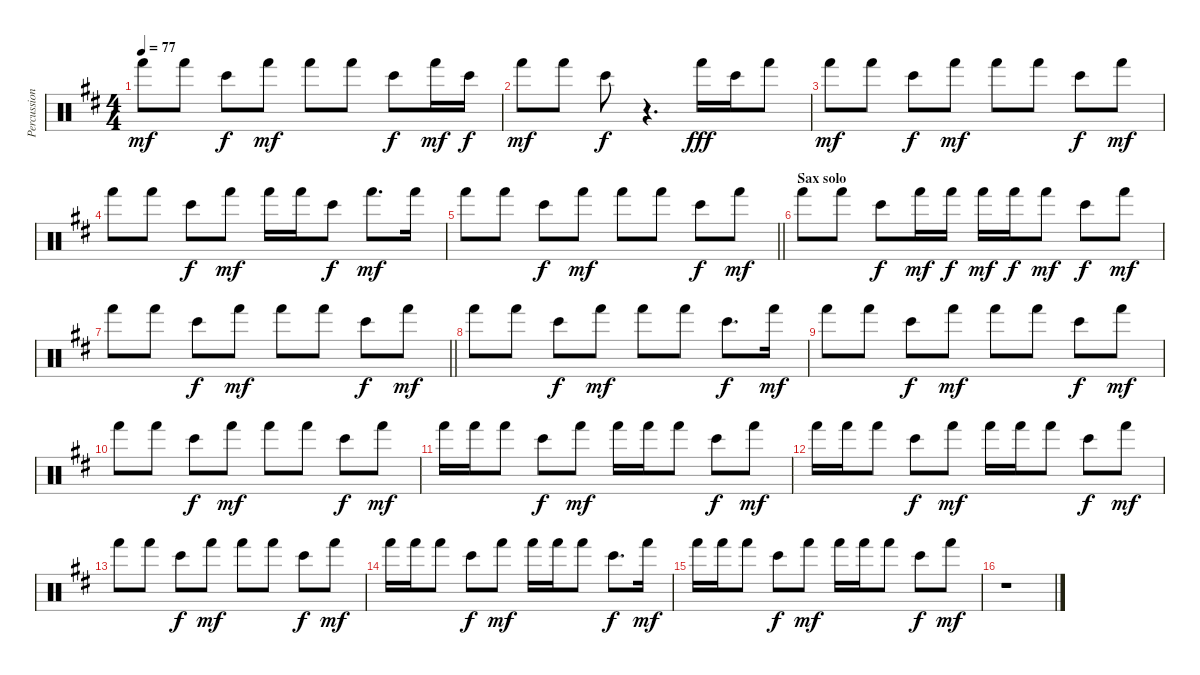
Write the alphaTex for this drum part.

\track ("Percussion" "Percussion") {instrument percussion}
\staff {score}
\articulation defaults
\ts (4 4)
\tempo 77
\clef neutral
\ks d "Hand (hit)".8{dy mf} "Hand (hit)".8 "Bongo High (hit)".8{dy f} "Hand (hit)".8{dy mf} "Hand (hit)".8 "Hand (hit)".8 "Bongo High (hit)".8{dy f} "Hand (hit)".16{dy mf} "Bongo High (hit)".16{dy f}
|
"Hand (hit)".8{dy mf} "Hand (hit)".8 "Bongo High (hit)".8{dy f} r.4{d} "Hand (hit)".16{dy fff} "Bongo High (hit)".16 "Hand (hit)".8 |
"Hand (hit)".8{dy mf} "Hand (hit)".8 "Bongo High (hit)".8{dy f} "Hand (hit)".8{dy mf} "Hand (hit)".8 "Hand (hit)".8 "Bongo High (hit)".8{dy f} "Hand (hit)".8{dy mf} |
"Hand (hit)".8 "Hand (hit)".8 "Bongo High (hit)".8{dy f} "Hand (hit)".8{dy mf} "Hand (hit)".16 "Hand (hit)".16 "Bongo High (hit)".8{dy f} "Hand (hit)".8{d dy mf} "Hand (hit)".16 |
\barLineRight lightlight "Hand (hit)".8 "Hand (hit)".8 "Bongo High (hit)".8{dy f} "Hand (hit)".8{dy mf} "Hand (hit)".8 "Hand (hit)".8 "Bongo High (hit)".8{dy f} "Hand (hit)".8{dy mf}
|
\section ("" "Sax solo")
"Hand (hit)".8 "Hand (hit)".8 "Bongo High (hit)".8{dy f} "Hand (hit)".16{dy mf} "Hand (hit)".16{dy f} "Hand (hit)".16{dy mf} "Hand (hit)".16{dy f} "Hand (hit)".8{dy mf} "Bongo High (hit)".8{dy f} "Hand (hit)".8{dy mf} |
\barLineRight lightlight "Hand (hit)".8 "Hand (hit)".8 "Bongo High (hit)".8{dy f} "Hand (hit)".8{dy mf} "Hand (hit)".8 "Hand (hit)".8 "Bongo High (hit)".8{dy f} "Hand (hit)".8{dy mf}
|
"Hand (hit)".8 "Hand (hit)".8 "Bongo High (hit)".8{dy f} "Hand (hit)".8{dy mf} "Hand (hit)".8 "Hand (hit)".8 "Bongo High (hit)".8{d dy f} "Hand (hit)".16{dy mf} |
"Hand (hit)".8 "Hand (hit)".8 "Bongo High (hit)".8{dy f} "Hand (hit)".8{dy mf} "Hand (hit)".8 "Hand (hit)".8 "Bongo High (hit)".8{dy f} "Hand (hit)".8{dy mf} |
"Hand (hit)".8 "Hand (hit)".8 "Bongo High (hit)".8{dy f} "Hand (hit)".8{dy mf} "Hand (hit)".8 "Hand (hit)".8 "Bongo High (hit)".8{dy f} "Hand (hit)".8{dy mf} |
"Hand (hit)".16 "Hand (hit)".16 "Hand (hit)".8 "Bongo High (hit)".8{dy f} "Hand (hit)".8{dy mf} "Hand (hit)".16 "Hand (hit)".16 "Hand (hit)".8 "Bongo High (hit)".8{dy f} "Hand (hit)".8{dy mf} |
"Hand (hit)".16 "Hand (hit)".16 "Hand (hit)".8 "Bongo High (hit)".8{dy f} "Hand (hit)".8{dy mf} "Hand (hit)".16 "Hand (hit)".16 "Hand (hit)".8 "Bongo High (hit)".8{dy f} "Hand (hit)".8{dy mf} |
"Hand (hit)".8 "Hand (hit)".8 "Bongo High (hit)".8{dy f} "Hand (hit)".8{dy mf} "Hand (hit)".8 "Hand (hit)".8 "Bongo High (hit)".8{dy f} "Hand (hit)".8{dy mf} |
"Hand (hit)".16 "Hand (hit)".16 "Hand (hit)".8 "Bongo High (hit)".8{dy f} "Hand (hit)".8{dy mf} "Hand (hit)".16 "Hand (hit)".16 "Hand (hit)".8 "Bongo High (hit)".8{d dy f} "Hand (hit)".16{dy mf} |
"Hand (hit)".16 "Hand (hit)".16 "Hand (hit)".8 "Bongo High (hit)".8{dy f} "Hand (hit)".8{dy mf} "Hand (hit)".16 "Hand (hit)".16 "Hand (hit)".8 "Bongo High (hit)".8{dy f} "Hand (hit)".8{dy mf} |
r.1
